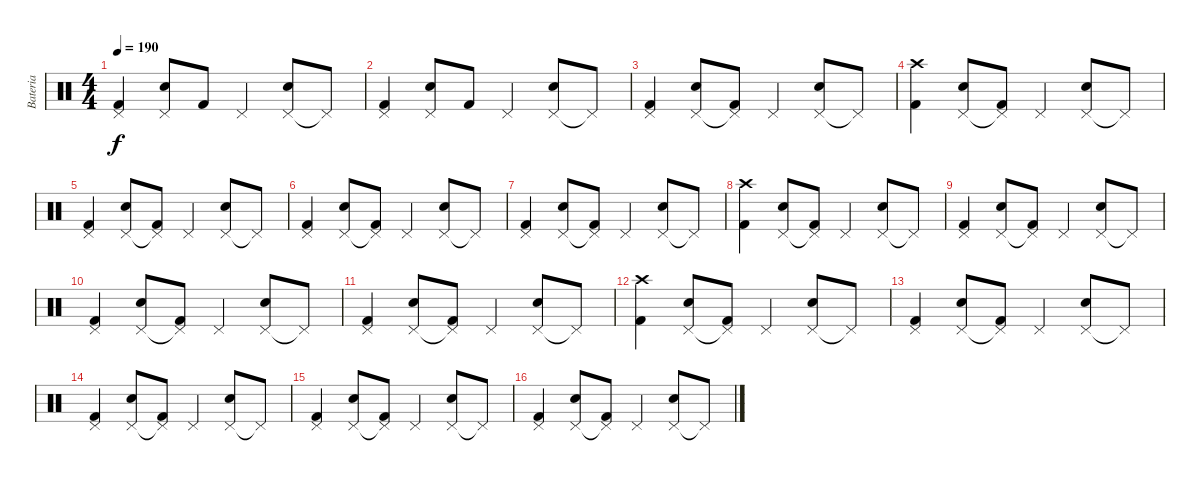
\track ("Bateria" "Bateria") {instrument percussion}
\staff {score}
\articulation defaults
\ts (4 4)
\tempo 190
\clef neutral
\ks c
("Pedal Hi-Hat (hit)" "Kick (hit) 2").4{dy f} ("Pedal Hi-Hat (hit)" "Snare (hit) 2").8 "Kick (hit) 2".8 "Pedal Hi-Hat (hit)".4 ("Pedal Hi-Hat (hit)" "Snare (hit) 2").8 "Pedal Hi-Hat (hit)"{t}.8 |
("Pedal Hi-Hat (hit)" "Kick (hit) 2").4 ("Pedal Hi-Hat (hit)" "Snare (hit) 2").8 "Kick (hit) 2".8 "Pedal Hi-Hat (hit)".4 ("Pedal Hi-Hat (hit)" "Snare (hit) 2").8 "Pedal Hi-Hat (hit)"{t}.8 |
("Pedal Hi-Hat (hit)" "Kick (hit) 2").4 ("Pedal Hi-Hat (hit)" "Snare (hit) 2").8 ("Pedal Hi-Hat (hit)"{t} "Kick (hit) 2").8 "Pedal Hi-Hat (hit)".4 ("Pedal Hi-Hat (hit)" "Snare (hit) 2").8 "Pedal Hi-Hat (hit)"{t}.8 |
("Crash high (hit)" "Kick (hit) 2").4 ("Pedal Hi-Hat (hit)" "Snare (hit) 2").8 ("Pedal Hi-Hat (hit)"{t} "Kick (hit) 2").8 "Pedal Hi-Hat (hit)".4 ("Pedal Hi-Hat (hit)" "Snare (hit) 2").8 "Pedal Hi-Hat (hit)"{t}.8 |
("Pedal Hi-Hat (hit)" "Kick (hit) 2").4 ("Pedal Hi-Hat (hit)" "Snare (hit) 2").8 ("Pedal Hi-Hat (hit)"{t} "Kick (hit) 2").8 "Pedal Hi-Hat (hit)".4 ("Pedal Hi-Hat (hit)" "Snare (hit) 2").8 "Pedal Hi-Hat (hit)"{t}.8 |
("Pedal Hi-Hat (hit)" "Kick (hit) 2").4 ("Pedal Hi-Hat (hit)" "Snare (hit) 2").8 ("Pedal Hi-Hat (hit)"{t} "Kick (hit) 2").8 "Pedal Hi-Hat (hit)".4 ("Pedal Hi-Hat (hit)" "Snare (hit) 2").8 "Pedal Hi-Hat (hit)"{t}.8 |
("Pedal Hi-Hat (hit)" "Kick (hit) 2").4 ("Pedal Hi-Hat (hit)" "Snare (hit) 2").8 ("Pedal Hi-Hat (hit)"{t} "Kick (hit) 2").8 "Pedal Hi-Hat (hit)".4 ("Pedal Hi-Hat (hit)" "Snare (hit) 2").8 "Pedal Hi-Hat (hit)"{t}.8 |
("Crash high (hit)" "Kick (hit) 2").4 ("Pedal Hi-Hat (hit)" "Snare (hit) 2").8 ("Pedal Hi-Hat (hit)"{t} "Kick (hit) 2").8 "Pedal Hi-Hat (hit)".4 ("Pedal Hi-Hat (hit)" "Snare (hit) 2").8 "Pedal Hi-Hat (hit)"{t}.8 |
("Pedal Hi-Hat (hit)" "Kick (hit) 2").4 ("Pedal Hi-Hat (hit)" "Snare (hit) 2").8 ("Pedal Hi-Hat (hit)"{t} "Kick (hit) 2").8 "Pedal Hi-Hat (hit)".4 ("Pedal Hi-Hat (hit)" "Snare (hit) 2").8 "Pedal Hi-Hat (hit)"{t}.8 |
("Pedal Hi-Hat (hit)" "Kick (hit) 2").4 ("Pedal Hi-Hat (hit)" "Snare (hit) 2").8 ("Pedal Hi-Hat (hit)"{t} "Kick (hit) 2").8 "Pedal Hi-Hat (hit)".4 ("Pedal Hi-Hat (hit)" "Snare (hit) 2").8 "Pedal Hi-Hat (hit)"{t}.8 |
("Pedal Hi-Hat (hit)" "Kick (hit) 2").4 ("Pedal Hi-Hat (hit)" "Snare (hit) 2").8 ("Pedal Hi-Hat (hit)"{t} "Kick (hit) 2").8 "Pedal Hi-Hat (hit)".4 ("Pedal Hi-Hat (hit)" "Snare (hit) 2").8 "Pedal Hi-Hat (hit)"{t}.8 |
("Crash high (hit)" "Kick (hit) 2").4 ("Pedal Hi-Hat (hit)" "Snare (hit) 2").8 ("Pedal Hi-Hat (hit)"{t} "Kick (hit) 2").8 "Pedal Hi-Hat (hit)".4 ("Pedal Hi-Hat (hit)" "Snare (hit) 2").8 "Pedal Hi-Hat (hit)"{t}.8 |
("Pedal Hi-Hat (hit)" "Kick (hit) 2").4 ("Pedal Hi-Hat (hit)" "Snare (hit) 2").8 ("Pedal Hi-Hat (hit)"{t} "Kick (hit) 2").8 "Pedal Hi-Hat (hit)".4 ("Pedal Hi-Hat (hit)" "Snare (hit) 2").8 "Pedal Hi-Hat (hit)"{t}.8 |
("Pedal Hi-Hat (hit)" "Kick (hit) 2").4 ("Pedal Hi-Hat (hit)" "Snare (hit) 2").8 ("Pedal Hi-Hat (hit)"{t} "Kick (hit) 2").8 "Pedal Hi-Hat (hit)".4 ("Pedal Hi-Hat (hit)" "Snare (hit) 2").8 "Pedal Hi-Hat (hit)"{t}.8 |
("Pedal Hi-Hat (hit)" "Kick (hit) 2").4 ("Pedal Hi-Hat (hit)" "Snare (hit) 2").8 ("Pedal Hi-Hat (hit)"{t} "Kick (hit) 2").8 "Pedal Hi-Hat (hit)".4 ("Pedal Hi-Hat (hit)" "Snare (hit) 2").8 "Pedal Hi-Hat (hit)"{t}.8 |
("Pedal Hi-Hat (hit)" "Kick (hit) 2").4 ("Pedal Hi-Hat (hit)" "Snare (hit) 2").8 ("Pedal Hi-Hat (hit)"{t} "Kick (hit) 2").8 "Pedal Hi-Hat (hit)".4 ("Pedal Hi-Hat (hit)" "Snare (hit) 2").8 "Pedal Hi-Hat (hit)"{t}.8
